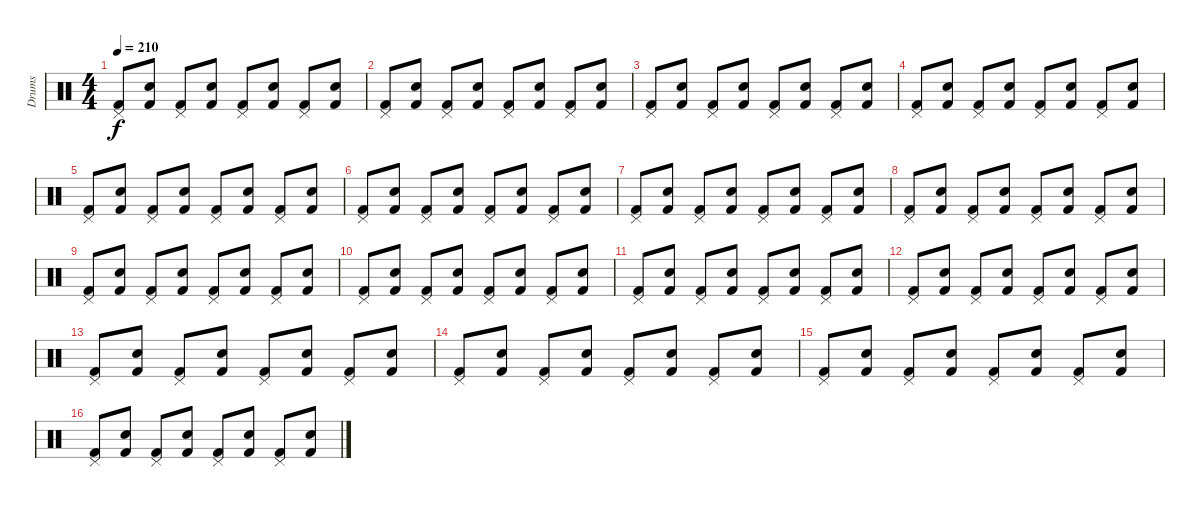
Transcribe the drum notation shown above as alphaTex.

\track ("Drums" "Drums") {instrument percussion}
\staff {score}
\articulation defaults
\ts (4 4)
\tempo 210
\clef neutral
\ks c
("Pedal Hi-Hat (hit)" "Kick (hit) 2").8{dy f} ("Snare (hit) 2" "Kick (hit) 2").8 ("Pedal Hi-Hat (hit)" "Kick (hit) 2").8 ("Snare (hit) 2" "Kick (hit) 2").8 ("Pedal Hi-Hat (hit)" "Kick (hit) 2").8 ("Snare (hit) 2" "Kick (hit) 2").8 ("Pedal Hi-Hat (hit)" "Kick (hit) 2").8 ("Snare (hit) 2" "Kick (hit) 2").8 |
("Pedal Hi-Hat (hit)" "Kick (hit) 2").8 ("Snare (hit) 2" "Kick (hit) 2").8 ("Pedal Hi-Hat (hit)" "Kick (hit) 2").8 ("Snare (hit) 2" "Kick (hit) 2").8 ("Pedal Hi-Hat (hit)" "Kick (hit) 2").8 ("Snare (hit) 2" "Kick (hit) 2").8 ("Pedal Hi-Hat (hit)" "Kick (hit) 2").8 ("Snare (hit) 2" "Kick (hit) 2").8 |
("Pedal Hi-Hat (hit)" "Kick (hit) 2").8 ("Snare (hit) 2" "Kick (hit) 2").8 ("Pedal Hi-Hat (hit)" "Kick (hit) 2").8 ("Snare (hit) 2" "Kick (hit) 2").8 ("Pedal Hi-Hat (hit)" "Kick (hit) 2").8 ("Snare (hit) 2" "Kick (hit) 2").8 ("Pedal Hi-Hat (hit)" "Kick (hit) 2").8 ("Snare (hit) 2" "Kick (hit) 2").8 |
("Pedal Hi-Hat (hit)" "Kick (hit) 2").8 ("Snare (hit) 2" "Kick (hit) 2").8 ("Pedal Hi-Hat (hit)" "Kick (hit) 2").8 ("Snare (hit) 2" "Kick (hit) 2").8 ("Pedal Hi-Hat (hit)" "Kick (hit) 2").8 ("Snare (hit) 2" "Kick (hit) 2").8 ("Pedal Hi-Hat (hit)" "Kick (hit) 2").8 ("Snare (hit) 2" "Kick (hit) 2").8 |
("Pedal Hi-Hat (hit)" "Kick (hit) 2").8 ("Snare (hit) 2" "Kick (hit) 2").8 ("Pedal Hi-Hat (hit)" "Kick (hit) 2").8 ("Snare (hit) 2" "Kick (hit) 2").8 ("Pedal Hi-Hat (hit)" "Kick (hit) 2").8 ("Snare (hit) 2" "Kick (hit) 2").8 ("Pedal Hi-Hat (hit)" "Kick (hit) 2").8 ("Snare (hit) 2" "Kick (hit) 2").8 |
("Pedal Hi-Hat (hit)" "Kick (hit) 2").8 ("Snare (hit) 2" "Kick (hit) 2").8 ("Pedal Hi-Hat (hit)" "Kick (hit) 2").8 ("Snare (hit) 2" "Kick (hit) 2").8 ("Pedal Hi-Hat (hit)" "Kick (hit) 2").8 ("Snare (hit) 2" "Kick (hit) 2").8 ("Pedal Hi-Hat (hit)" "Kick (hit) 2").8 ("Snare (hit) 2" "Kick (hit) 2").8 |
("Pedal Hi-Hat (hit)" "Kick (hit) 2").8 ("Snare (hit) 2" "Kick (hit) 2").8 ("Pedal Hi-Hat (hit)" "Kick (hit) 2").8 ("Snare (hit) 2" "Kick (hit) 2").8 ("Pedal Hi-Hat (hit)" "Kick (hit) 2").8 ("Snare (hit) 2" "Kick (hit) 2").8 ("Pedal Hi-Hat (hit)" "Kick (hit) 2").8 ("Snare (hit) 2" "Kick (hit) 2").8 |
("Pedal Hi-Hat (hit)" "Kick (hit) 2").8 ("Snare (hit) 2" "Kick (hit) 2").8 ("Pedal Hi-Hat (hit)" "Kick (hit) 2").8 ("Snare (hit) 2" "Kick (hit) 2").8 ("Pedal Hi-Hat (hit)" "Kick (hit) 2").8 ("Snare (hit) 2" "Kick (hit) 2").8 ("Pedal Hi-Hat (hit)" "Kick (hit) 2").8 ("Snare (hit) 2" "Kick (hit) 2").8 |
("Pedal Hi-Hat (hit)" "Kick (hit) 2").8 ("Snare (hit) 2" "Kick (hit) 2").8 ("Pedal Hi-Hat (hit)" "Kick (hit) 2").8 ("Snare (hit) 2" "Kick (hit) 2").8 ("Pedal Hi-Hat (hit)" "Kick (hit) 2").8 ("Snare (hit) 2" "Kick (hit) 2").8 ("Pedal Hi-Hat (hit)" "Kick (hit) 2").8 ("Snare (hit) 2" "Kick (hit) 2").8 |
("Pedal Hi-Hat (hit)" "Kick (hit) 2").8 ("Snare (hit) 2" "Kick (hit) 2").8 ("Pedal Hi-Hat (hit)" "Kick (hit) 2").8 ("Snare (hit) 2" "Kick (hit) 2").8 ("Pedal Hi-Hat (hit)" "Kick (hit) 2").8 ("Snare (hit) 2" "Kick (hit) 2").8 ("Pedal Hi-Hat (hit)" "Kick (hit) 2").8 ("Snare (hit) 2" "Kick (hit) 2").8 |
("Pedal Hi-Hat (hit)" "Kick (hit) 2").8 ("Snare (hit) 2" "Kick (hit) 2").8 ("Pedal Hi-Hat (hit)" "Kick (hit) 2").8 ("Snare (hit) 2" "Kick (hit) 2").8 ("Pedal Hi-Hat (hit)" "Kick (hit) 2").8 ("Snare (hit) 2" "Kick (hit) 2").8 ("Pedal Hi-Hat (hit)" "Kick (hit) 2").8 ("Snare (hit) 2" "Kick (hit) 2").8 |
("Pedal Hi-Hat (hit)" "Kick (hit) 2").8 ("Snare (hit) 2" "Kick (hit) 2").8 ("Pedal Hi-Hat (hit)" "Kick (hit) 2").8 ("Snare (hit) 2" "Kick (hit) 2").8 ("Pedal Hi-Hat (hit)" "Kick (hit) 2").8 ("Snare (hit) 2" "Kick (hit) 2").8 ("Pedal Hi-Hat (hit)" "Kick (hit) 2").8 ("Snare (hit) 2" "Kick (hit) 2").8 |
("Pedal Hi-Hat (hit)" "Kick (hit) 2").8 ("Snare (hit) 2" "Kick (hit) 2").8 ("Pedal Hi-Hat (hit)" "Kick (hit) 2").8 ("Snare (hit) 2" "Kick (hit) 2").8 ("Pedal Hi-Hat (hit)" "Kick (hit) 2").8 ("Snare (hit) 2" "Kick (hit) 2").8 ("Pedal Hi-Hat (hit)" "Kick (hit) 2").8 ("Snare (hit) 2" "Kick (hit) 2").8 |
("Pedal Hi-Hat (hit)" "Kick (hit) 2").8 ("Snare (hit) 2" "Kick (hit) 2").8 ("Pedal Hi-Hat (hit)" "Kick (hit) 2").8 ("Snare (hit) 2" "Kick (hit) 2").8 ("Pedal Hi-Hat (hit)" "Kick (hit) 2").8 ("Snare (hit) 2" "Kick (hit) 2").8 ("Pedal Hi-Hat (hit)" "Kick (hit) 2").8 ("Snare (hit) 2" "Kick (hit) 2").8 |
("Pedal Hi-Hat (hit)" "Kick (hit) 2").8 ("Snare (hit) 2" "Kick (hit) 2").8 ("Pedal Hi-Hat (hit)" "Kick (hit) 2").8 ("Snare (hit) 2" "Kick (hit) 2").8 ("Pedal Hi-Hat (hit)" "Kick (hit) 2").8 ("Snare (hit) 2" "Kick (hit) 2").8 ("Pedal Hi-Hat (hit)" "Kick (hit) 2").8 ("Snare (hit) 2" "Kick (hit) 2").8 |
("Pedal Hi-Hat (hit)" "Kick (hit) 2").8 ("Snare (hit) 2" "Kick (hit) 2").8 ("Pedal Hi-Hat (hit)" "Kick (hit) 2").8 ("Snare (hit) 2" "Kick (hit) 2").8 ("Pedal Hi-Hat (hit)" "Kick (hit) 2").8 ("Snare (hit) 2" "Kick (hit) 2").8 ("Pedal Hi-Hat (hit)" "Kick (hit) 2").8 ("Snare (hit) 2" "Kick (hit) 2").8
